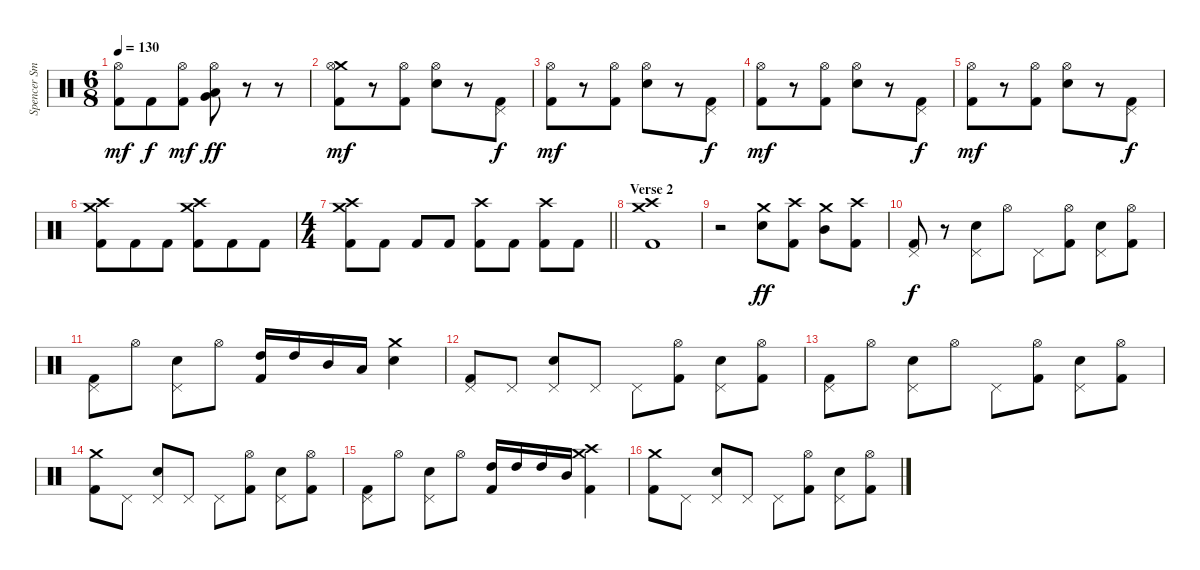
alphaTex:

\track ("Spencer Smith (Drums)" "Spencer Sm") {instrument percussion}
\staff {score}
\articulation defaults
\ts (6 8)
\tempo 130
\clef neutral
\ks c
("Hi-Hat (open)" "Kick (hit) 2").8{dy mf} "Kick (hit) 2".8{dy f} ("Hi-Hat (open)" "Kick (hit) 2").8{dy mf} ("Hi-Hat (open)" "Low Tom (hit)" "Very Low Tom (hit)").8{dy ff} r.8 r.8 |
("Crash medium (hit)" "Hi-Hat (open)" "Kick (hit) 2").8{dy mf} r.8 ("Hi-Hat (open)" "Kick (hit) 2").8 ("Hi-Hat (open)" "Electric Snare (hit)").8 r.8 ("Pedal Hi-Hat (hit)" "Kick (hit) 2").8{dy f} |
("Hi-Hat (open)" "Kick (hit) 2").8{dy mf} r.8 ("Hi-Hat (open)" "Kick (hit) 2").8 ("Hi-Hat (open)" "Electric Snare (hit)").8 r.8 ("Pedal Hi-Hat (hit)" "Kick (hit) 2").8{dy f} |
("Hi-Hat (open)" "Kick (hit) 2").8{dy mf} r.8 ("Hi-Hat (open)" "Kick (hit) 2").8 ("Hi-Hat (open)" "Electric Snare (hit)").8 r.8 ("Pedal Hi-Hat (hit)" "Kick (hit) 2").8{dy f} |
("Hi-Hat (open)" "Kick (hit) 2").8{dy mf} r.8 ("Hi-Hat (open)" "Kick (hit) 2").8 ("Hi-Hat (open)" "Electric Snare (hit)").8 r.8 ("Pedal Hi-Hat (hit)" "Kick (hit) 2").8{dy f} |
("Crash high (hit)" "Crash medium (hit)" "Kick (hit) 2").8 "Kick (hit) 2".8 "Kick (hit) 2".8 ("Crash high (hit)" "Crash medium (hit)" "Kick (hit) 2").8 "Kick (hit) 2".8 "Kick (hit) 2".8 |
\ts (4 4)
\barLineRight lightlight
("Crash high (hit)" "Crash medium (hit)" "Kick (hit) 2").8 "Kick (hit) 2".8 "Kick (hit) 2".8 "Kick (hit) 2".8 ("Crash high (hit)" "Kick (hit) 2").8 "Kick (hit) 2".8 ("Crash high (hit)" "Kick (hit) 2").8 "Kick (hit) 2".8 |
\section ("" "Verse 2")
("Crash high (hit)" "Crash medium (hit)" "Kick (hit) 2").1 |
r.2 ("Crash medium (hit)" "Electric Snare (hit)").8{dy ff} ("Crash high (hit)" "Kick (hit) 2").8 ("Crash medium (hit)" "Mid Tom (hit)").8 ("Crash high (hit)" "Kick (hit) 2").8 |
("Pedal Hi-Hat (hit)" "Kick (hit) 2").8{dy f} r.8 ("Pedal Hi-Hat (hit)" "Electric Snare (hit)").8 "Hi-Hat (open)".8 "Pedal Hi-Hat (hit)".8 ("Hi-Hat (open)" "Kick (hit) 2").8 ("Pedal Hi-Hat (hit)" "Electric Snare (hit)").8 ("Hi-Hat (open)" "Kick (hit) 2").8 |
("Pedal Hi-Hat (hit)" "Kick (hit) 2").8 "Hi-Hat (open)".8 ("Pedal Hi-Hat (hit)" "Electric Snare (hit)").8 "Hi-Hat (open)".8 ("High Tom (hit)" "Kick (hit) 2").16 "High Tom (hit)".16 "Mid Tom (hit)".16 "Low Tom (hit)".16 ("Crash medium (hit)" "Electric Snare (hit)").4 |
("Pedal Hi-Hat (hit)" "Kick (hit) 2").8 "Pedal Hi-Hat (hit)".8 ("Pedal Hi-Hat (hit)" "Electric Snare (hit)").8 "Pedal Hi-Hat (hit)".8 "Pedal Hi-Hat (hit)".8 ("Hi-Hat (open)" "Kick (hit) 2").8 ("Pedal Hi-Hat (hit)" "Electric Snare (hit)").8 ("Hi-Hat (open)" "Kick (hit) 2").8 |
("Pedal Hi-Hat (hit)" "Kick (hit) 2").8 "Hi-Hat (open)".8 ("Pedal Hi-Hat (hit)" "Electric Snare (hit)").8 "Hi-Hat (open)".8 "Pedal Hi-Hat (hit)".8 ("Hi-Hat (open)" "Kick (hit) 2").8 ("Pedal Hi-Hat (hit)" "Electric Snare (hit)").8 ("Hi-Hat (open)" "Kick (hit) 2").8 |
("Crash medium (hit)" "Kick (hit) 2").8 "Pedal Hi-Hat (hit)".8 ("Pedal Hi-Hat (hit)" "Electric Snare (hit)").8 "Pedal Hi-Hat (hit)".8 "Pedal Hi-Hat (hit)".8 ("Hi-Hat (open)" "Kick (hit) 2").8 ("Pedal Hi-Hat (hit)" "Electric Snare (hit)").8 ("Hi-Hat (open)" "Kick (hit) 2").8 |
("Pedal Hi-Hat (hit)" "Kick (hit) 2").8 "Hi-Hat (open)".8 ("Pedal Hi-Hat (hit)" "Electric Snare (hit)").8 "Hi-Hat (open)".8 ("High Tom (hit)" "Kick (hit) 2").16 "High Tom (hit)".16 "High Tom (hit)".16 "Mid Tom (hit)".16 ("Crash high (hit)" "Crash medium (hit)" "Kick (hit) 2").4 |
("Crash medium (hit)" "Kick (hit) 2").8 "Pedal Hi-Hat (hit)".8 ("Pedal Hi-Hat (hit)" "Electric Snare (hit)").8 "Pedal Hi-Hat (hit)".8 "Pedal Hi-Hat (hit)".8 ("Hi-Hat (open)" "Kick (hit) 2").8 ("Pedal Hi-Hat (hit)" "Electric Snare (hit)").8 ("Hi-Hat (open)" "Kick (hit) 2").8
